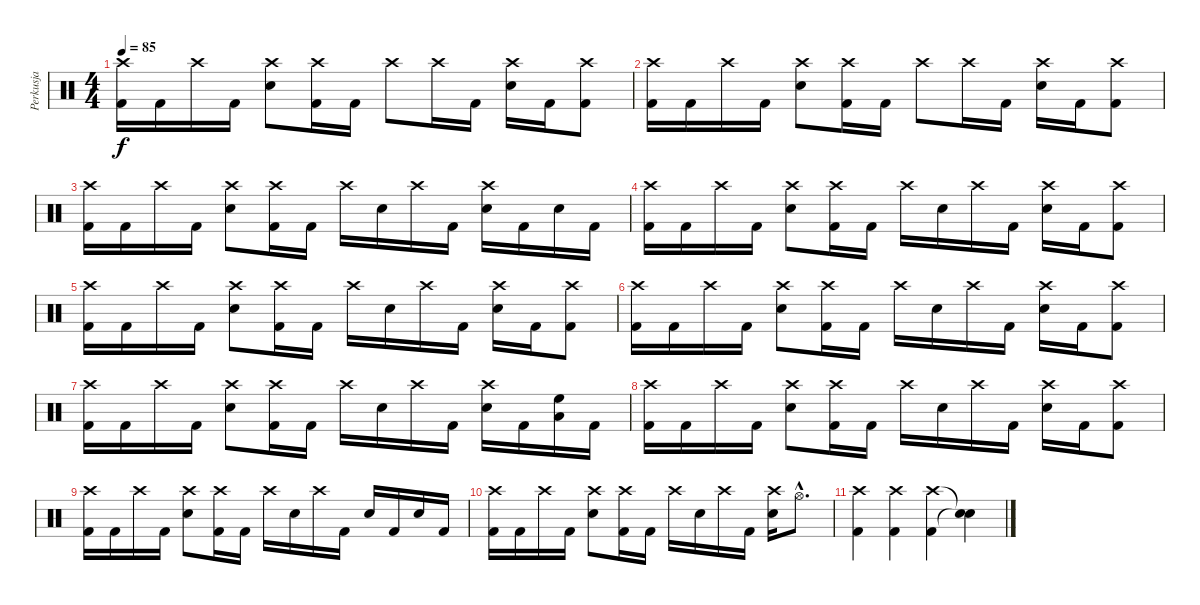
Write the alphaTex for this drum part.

\track ("Perkusja" "Perkusja") {instrument percussion}
\staff {score}
\articulation defaults
\ts (4 4)
\tempo 85
\clef neutral
\ks c
("Crash high (hit)" "Kick (hit) 2").16{dy f} "Kick (hit) 2".16 "Crash high (hit)".16 "Kick (hit) 2".16 ("Crash high (hit)" "Snare (hit) 2").8 ("Crash high (hit)" "Kick (hit) 2").16 "Kick (hit) 2".16 "Crash high (hit)".8 "Crash high (hit)".16 "Kick (hit) 2".16 ("Crash high (hit)" "Snare (hit) 2").16 "Kick (hit) 2".16 ("Crash high (hit)" "Kick (hit) 2").8 |
("Crash high (hit)" "Kick (hit) 2").16 "Kick (hit) 2".16 "Crash high (hit)".16 "Kick (hit) 2".16 ("Crash high (hit)" "Snare (hit) 2").8 ("Crash high (hit)" "Kick (hit) 2").16 "Kick (hit) 2".16 "Crash high (hit)".8 "Crash high (hit)".16 "Kick (hit) 2".16 ("Crash high (hit)" "Snare (hit) 2").16 "Kick (hit) 2".16 ("Crash high (hit)" "Kick (hit) 2").8 |
("Crash high (hit)" "Kick (hit) 2").16 "Kick (hit) 2".16 "Crash high (hit)".16 "Kick (hit) 2".16 ("Crash high (hit)" "Snare (hit) 2").8 ("Crash high (hit)" "Kick (hit) 2").16 "Kick (hit) 2".16 "Crash high (hit)".16 "Snare (hit) 2".16 "Crash high (hit)".16 "Kick (hit) 2".16 ("Crash high (hit)" "Snare (hit) 2").16 "Kick (hit) 2".16 "Snare (hit) 2".16 "Kick (hit) 2".16 |
("Crash high (hit)" "Kick (hit) 2").16 "Kick (hit) 2".16 "Crash high (hit)".16 "Kick (hit) 2".16 ("Crash high (hit)" "Snare (hit) 2").8 ("Crash high (hit)" "Kick (hit) 2").16 "Kick (hit) 2".16 "Crash high (hit)".16 "Snare (hit) 2".16 "Crash high (hit)".16 "Kick (hit) 2".16 ("Crash high (hit)" "Snare (hit) 2").16 "Kick (hit) 2".16 ("Crash high (hit)" "Kick (hit) 2").8 |
("Crash high (hit)" "Kick (hit) 2").16 "Kick (hit) 2".16 "Crash high (hit)".16 "Kick (hit) 2".16 ("Crash high (hit)" "Snare (hit) 2").8 ("Crash high (hit)" "Kick (hit) 2").16 "Kick (hit) 2".16 "Crash high (hit)".16 "Snare (hit) 2".16 "Crash high (hit)".16 "Kick (hit) 2".16 ("Crash high (hit)" "Snare (hit) 2").16 "Kick (hit) 2".16 ("Crash high (hit)" "Kick (hit) 2").8 |
("Crash high (hit)" "Kick (hit) 2").16 "Kick (hit) 2".16 "Crash high (hit)".16 "Kick (hit) 2".16 ("Crash high (hit)" "Snare (hit) 2").8 ("Crash high (hit)" "Kick (hit) 2").16 "Kick (hit) 2".16 "Crash high (hit)".16 "Snare (hit) 2".16 "Crash high (hit)".16 "Kick (hit) 2".16 ("Crash high (hit)" "Snare (hit) 2").16 "Kick (hit) 2".16 ("Crash high (hit)" "Kick (hit) 2").8 |
("Crash high (hit)" "Kick (hit) 2").16 "Kick (hit) 2".16 "Crash high (hit)".16 "Kick (hit) 2".16 ("Crash high (hit)" "Snare (hit) 2").8 ("Crash high (hit)" "Kick (hit) 2").16 "Kick (hit) 2".16 "Crash high (hit)".16 "Snare (hit) 2".16 "Crash high (hit)".16 "Kick (hit) 2".16 ("Crash high (hit)" "Snare (hit) 2").16 "Kick (hit) 2".16 ("High Floor Tom (hit)" "Low Floor Tom (hit)").16 "Kick (hit) 2".16 |
("Crash high (hit)" "Kick (hit) 2").16 "Kick (hit) 2".16 "Crash high (hit)".16 "Kick (hit) 2".16 ("Crash high (hit)" "Snare (hit) 2").8 ("Crash high (hit)" "Kick (hit) 2").16 "Kick (hit) 2".16 "Crash high (hit)".16 "Snare (hit) 2".16 "Crash high (hit)".16 "Kick (hit) 2".16 ("Crash high (hit)" "Snare (hit) 2").16 "Kick (hit) 2".16 ("Crash high (hit)" "Kick (hit) 2").8 |
("Crash high (hit)" "Kick (hit) 2").16 "Kick (hit) 2".16 "Crash high (hit)".16 "Kick (hit) 2".16 ("Crash high (hit)" "Snare (hit) 2").8 ("Crash high (hit)" "Kick (hit) 2").16 "Kick (hit) 2".16 "Crash high (hit)".16 "Snare (hit) 2".16 "Crash high (hit)".16 "Kick (hit) 2".16 "Snare (hit) 2".16 "Kick (hit) 2".16 "Snare (hit) 2".16 "Kick (hit) 2".16 |
("Crash high (hit)" "Kick (hit) 2").16 "Kick (hit) 2".16 "Crash high (hit)".16 "Kick (hit) 2".16 ("Crash high (hit)" "Snare (hit) 2").8 ("Crash high (hit)" "Kick (hit) 2").16 "Kick (hit) 2".16 "Crash high (hit)".16 "Snare (hit) 2".16 "Crash high (hit)".16 "Kick (hit) 2".16 ("Crash high (hit)" "Snare (hit) 2").16 "Hi-Hat (open)"{hac}.8{d} |
("Crash high (hit)" "Kick (hit) 2").4 ("Crash high (hit)" "Kick (hit) 2").4 ("Crash high (hit)" "Kick (hit) 2").4 ("Snare (hit)"{t} "Snare (hit)"{t}).4
